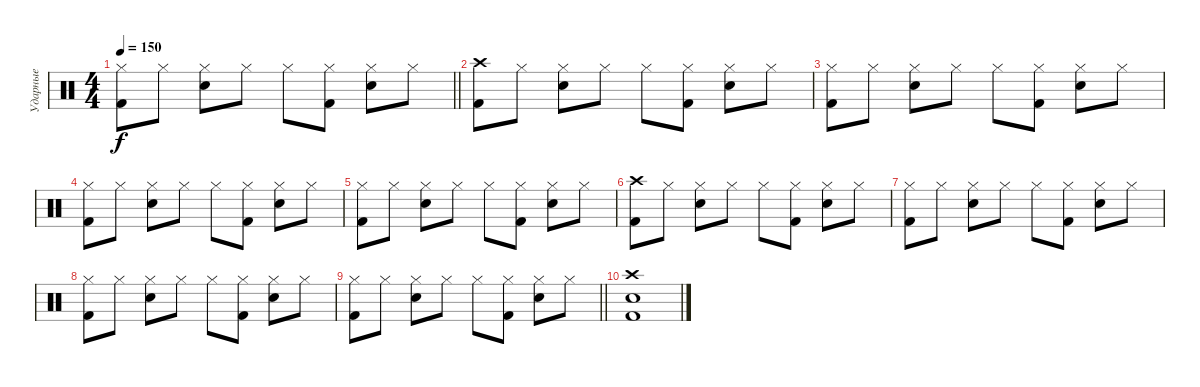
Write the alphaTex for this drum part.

\track ("Ударные" "Ударные") {instrument percussion}
\staff {score}
\articulation defaults
\ts (4 4)
\tempo 150
\clef neutral
\barLineRight lightlight
\ks c
("Hi-Hat (closed)" "Kick (hit) 2").8{dy f} "Hi-Hat (closed)".8 ("Hi-Hat (closed)" "Snare (hit) 2").8 "Hi-Hat (closed)".8 "Hi-Hat (closed)".8 ("Hi-Hat (closed)" "Kick (hit) 2").8 ("Hi-Hat (closed)" "Snare (hit) 2").8 "Hi-Hat (closed)".8 |
("Crash high (hit)" "Kick (hit) 2").8 "Hi-Hat (closed)".8 ("Hi-Hat (closed)" "Snare (hit) 2").8 "Hi-Hat (closed)".8 "Hi-Hat (closed)".8 ("Hi-Hat (closed)" "Kick (hit) 2").8 ("Hi-Hat (closed)" "Snare (hit) 2").8 "Hi-Hat (closed)".8 |
("Hi-Hat (closed)" "Kick (hit) 2").8 "Hi-Hat (closed)".8 ("Hi-Hat (closed)" "Snare (hit) 2").8 "Hi-Hat (closed)".8 "Hi-Hat (closed)".8 ("Hi-Hat (closed)" "Kick (hit) 2").8 ("Hi-Hat (closed)" "Snare (hit) 2").8 "Hi-Hat (closed)".8 |
("Hi-Hat (closed)" "Kick (hit) 2").8 "Hi-Hat (closed)".8 ("Hi-Hat (closed)" "Snare (hit) 2").8 "Hi-Hat (closed)".8 "Hi-Hat (closed)".8 ("Hi-Hat (closed)" "Kick (hit) 2").8 ("Hi-Hat (closed)" "Snare (hit) 2").8 "Hi-Hat (closed)".8 |
("Hi-Hat (closed)" "Kick (hit) 2").8 "Hi-Hat (closed)".8 ("Hi-Hat (closed)" "Snare (hit) 2").8 "Hi-Hat (closed)".8 "Hi-Hat (closed)".8 ("Hi-Hat (closed)" "Kick (hit) 2").8 ("Hi-Hat (closed)" "Snare (hit) 2").8 "Hi-Hat (closed)".8 |
("Crash high (hit)" "Kick (hit) 2").8 "Hi-Hat (closed)".8 ("Hi-Hat (closed)" "Snare (hit) 2").8 "Hi-Hat (closed)".8 "Hi-Hat (closed)".8 ("Hi-Hat (closed)" "Kick (hit) 2").8 ("Hi-Hat (closed)" "Snare (hit) 2").8 "Hi-Hat (closed)".8 |
("Hi-Hat (closed)" "Kick (hit) 2").8 "Hi-Hat (closed)".8 ("Hi-Hat (closed)" "Snare (hit) 2").8 "Hi-Hat (closed)".8 "Hi-Hat (closed)".8 ("Hi-Hat (closed)" "Kick (hit) 2").8 ("Hi-Hat (closed)" "Snare (hit) 2").8 "Hi-Hat (closed)".8 |
("Hi-Hat (closed)" "Kick (hit) 2").8 "Hi-Hat (closed)".8 ("Hi-Hat (closed)" "Snare (hit) 2").8 "Hi-Hat (closed)".8 "Hi-Hat (closed)".8 ("Hi-Hat (closed)" "Kick (hit) 2").8 ("Hi-Hat (closed)" "Snare (hit) 2").8 "Hi-Hat (closed)".8 |
\barLineRight lightlight
("Hi-Hat (closed)" "Kick (hit) 2").8 "Hi-Hat (closed)".8 ("Hi-Hat (closed)" "Snare (hit) 2").8 "Hi-Hat (closed)".8 "Hi-Hat (closed)".8 ("Hi-Hat (closed)" "Kick (hit) 2").8 ("Hi-Hat (closed)" "Snare (hit) 2").8 "Hi-Hat (closed)".8 |
("Crash high (hit)" "Snare (hit) 2" "Kick (hit) 2").1
